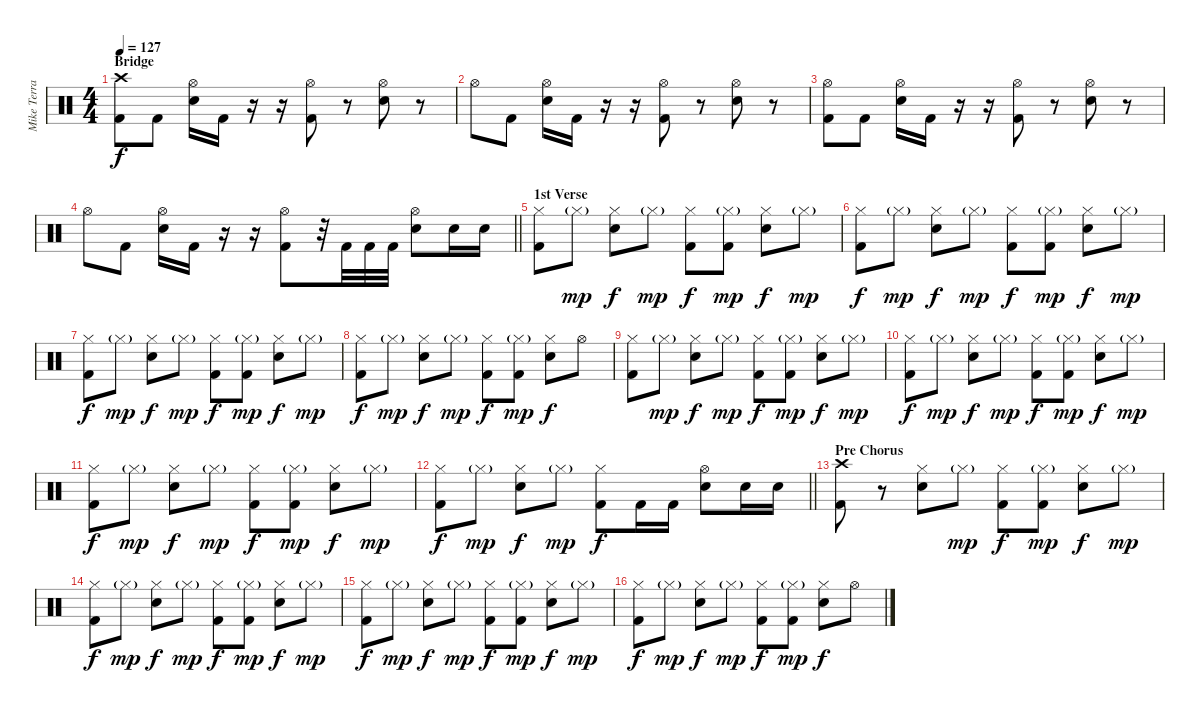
\track ("Mike Terrana" "Mike Terra") {instrument percussion}
\staff {score}
\articulation defaults
\ts (4 4)
\section ("" "Bridge")
\tempo 127
\clef neutral
\ks c
("Crash high (hit)" "Kick (hit) 2").8{dy f} "Kick (hit) 2".8 ("Hi-Hat (open)" "Snare (hit) 2").16 "Kick (hit) 2".16 r.16 r.16 ("Hi-Hat (open)" "Kick (hit) 2").8 r.8 ("Hi-Hat (open)" "Snare (hit) 2").8 r.8 |
"Hi-Hat (open)".8 "Kick (hit) 2".8 ("Hi-Hat (open)" "Snare (hit) 2").16 "Kick (hit) 2".16 r.16 r.16 ("Hi-Hat (open)" "Kick (hit) 2").8 r.8 ("Hi-Hat (open)" "Snare (hit) 2").8 r.8 |
("Hi-Hat (open)" "Kick (hit) 2").8 "Kick (hit) 2".8 ("Hi-Hat (open)" "Snare (hit) 2").16 "Kick (hit) 2".16 r.16 r.16 ("Hi-Hat (open)" "Kick (hit) 2").8 r.8 ("Hi-Hat (open)" "Snare (hit) 2").8 r.8 |
\barLineRight lightlight "Hi-Hat (open)".8 "Kick (hit) 2".8
("Hi-Hat (open)" "Snare (hit) 2").16 "Kick (hit) 2".16 r.16 r.16 ("Hi-Hat (open)" "Kick (hit) 2").8 r.32 "Kick (hit) 2".32 "Kick (hit) 2".32 "Kick (hit) 2".32 ("Hi-Hat (open)" "Snare (hit) 2").8 "Snare (hit) 2".16 "Snare (hit) 2".16 |
\section ("" "1st Verse")
("Hi-Hat (closed)" "Kick (hit) 2").8 "Hi-Hat (closed)"{g}.8{dy mp} ("Hi-Hat (closed)" "Snare (hit) 2").8{dy f} "Hi-Hat (closed)"{g}.8{dy mp} ("Hi-Hat (closed)" "Kick (hit) 2").8{dy f} ("Hi-Hat (closed)"{g} "Kick (hit) 2").8{dy mp} ("Hi-Hat (closed)" "Snare (hit) 2").8{dy f} "Hi-Hat (closed)"{g}.8{dy mp} |
("Hi-Hat (closed)" "Kick (hit) 2").8{dy f} "Hi-Hat (closed)"{g}.8{dy mp} ("Hi-Hat (closed)" "Snare (hit) 2").8{dy f} "Hi-Hat (closed)"{g}.8{dy mp} ("Hi-Hat (closed)" "Kick (hit) 2").8{dy f} ("Hi-Hat (closed)"{g} "Kick (hit) 2").8{dy mp} ("Hi-Hat (closed)" "Snare (hit) 2").8{dy f} "Hi-Hat (closed)"{g}.8{dy mp} |
("Hi-Hat (closed)" "Kick (hit) 2").8{dy f} "Hi-Hat (closed)"{g}.8{dy mp} ("Hi-Hat (closed)" "Snare (hit) 2").8{dy f} "Hi-Hat (closed)"{g}.8{dy mp} ("Hi-Hat (closed)" "Kick (hit) 2").8{dy f} ("Hi-Hat (closed)"{g} "Kick (hit) 2").8{dy mp} ("Hi-Hat (closed)" "Snare (hit) 2").8{dy f} "Hi-Hat (closed)"{g}.8{dy mp} |
("Hi-Hat (closed)" "Kick (hit) 2").8{dy f} "Hi-Hat (closed)"{g}.8{dy mp} ("Hi-Hat (closed)" "Snare (hit) 2").8{dy f} "Hi-Hat (closed)"{g}.8{dy mp} ("Hi-Hat (closed)" "Kick (hit) 2").8{dy f} ("Hi-Hat (closed)"{g} "Kick (hit) 2").8{dy mp} ("Hi-Hat (closed)" "Snare (hit) 2").8{dy f} "Hi-Hat (open)".8 |
("Hi-Hat (closed)" "Kick (hit) 2").8 "Hi-Hat (closed)"{g}.8{dy mp} ("Hi-Hat (closed)" "Snare (hit) 2").8{dy f} "Hi-Hat (closed)"{g}.8{dy mp} ("Hi-Hat (closed)" "Kick (hit) 2").8{dy f} ("Hi-Hat (closed)"{g} "Kick (hit) 2").8{dy mp} ("Hi-Hat (closed)" "Snare (hit) 2").8{dy f} "Hi-Hat (closed)"{g}.8{dy mp} |
("Hi-Hat (closed)" "Kick (hit) 2").8{dy f} "Hi-Hat (closed)"{g}.8{dy mp} ("Hi-Hat (closed)" "Snare (hit) 2").8{dy f} "Hi-Hat (closed)"{g}.8{dy mp} ("Hi-Hat (closed)" "Kick (hit) 2").8{dy f} ("Hi-Hat (closed)"{g} "Kick (hit) 2").8{dy mp} ("Hi-Hat (closed)" "Snare (hit) 2").8{dy f} "Hi-Hat (closed)"{g}.8{dy mp} |
("Hi-Hat (closed)" "Kick (hit) 2").8{dy f} "Hi-Hat (closed)"{g}.8{dy mp} ("Hi-Hat (closed)" "Snare (hit) 2").8{dy f} "Hi-Hat (closed)"{g}.8{dy mp} ("Hi-Hat (closed)" "Kick (hit) 2").8{dy f} ("Hi-Hat (closed)"{g} "Kick (hit) 2").8{dy mp} ("Hi-Hat (closed)" "Snare (hit) 2").8{dy f} "Hi-Hat (closed)"{g}.8{dy mp} |
\barLineRight lightlight
("Hi-Hat (closed)" "Kick (hit) 2").8{dy f} "Hi-Hat (closed)"{g}.8{dy mp} ("Hi-Hat (closed)" "Snare (hit) 2").8{dy f} "Hi-Hat (closed)"{g}.8{dy mp} ("Hi-Hat (closed)" "Kick (hit) 2").8{dy f} "Kick (hit) 2".16 "Kick (hit) 2".16 ("Hi-Hat (open)" "Snare (hit) 2").8 "Snare (hit) 2".16 "Snare (hit) 2".16 |
\section ("" "Pre Chorus")
("Crash high (hit)" "Kick (hit) 2").8 r.8 ("Hi-Hat (closed)" "Snare (hit) 2").8 "Hi-Hat (closed)"{g}.8{dy mp} ("Hi-Hat (closed)" "Kick (hit) 2").8{dy f} ("Hi-Hat (closed)"{g} "Kick (hit) 2").8{dy mp} ("Hi-Hat (closed)" "Snare (hit) 2").8{dy f} "Hi-Hat (closed)"{g}.8{dy mp} |
("Hi-Hat (closed)" "Kick (hit) 2").8{dy f} "Hi-Hat (closed)"{g}.8{dy mp} ("Hi-Hat (closed)" "Snare (hit) 2").8{dy f} "Hi-Hat (closed)"{g}.8{dy mp} ("Hi-Hat (closed)" "Kick (hit) 2").8{dy f} ("Hi-Hat (closed)"{g} "Kick (hit) 2").8{dy mp} ("Hi-Hat (closed)" "Snare (hit) 2").8{dy f} "Hi-Hat (closed)"{g}.8{dy mp} |
("Hi-Hat (closed)" "Kick (hit) 2").8{dy f} "Hi-Hat (closed)"{g}.8{dy mp} ("Hi-Hat (closed)" "Snare (hit) 2").8{dy f} "Hi-Hat (closed)"{g}.8{dy mp} ("Hi-Hat (closed)" "Kick (hit) 2").8{dy f} ("Hi-Hat (closed)"{g} "Kick (hit) 2").8{dy mp} ("Hi-Hat (closed)" "Snare (hit) 2").8{dy f} "Hi-Hat (closed)"{g}.8{dy mp} |
("Hi-Hat (closed)" "Kick (hit) 2").8{dy f} "Hi-Hat (closed)"{g}.8{dy mp} ("Hi-Hat (closed)" "Snare (hit) 2").8{dy f} "Hi-Hat (closed)"{g}.8{dy mp} ("Hi-Hat (closed)" "Kick (hit) 2").8{dy f} ("Hi-Hat (closed)"{g} "Kick (hit) 2").8{dy mp} ("Hi-Hat (closed)" "Snare (hit) 2").8{dy f} "Hi-Hat (open)".8
